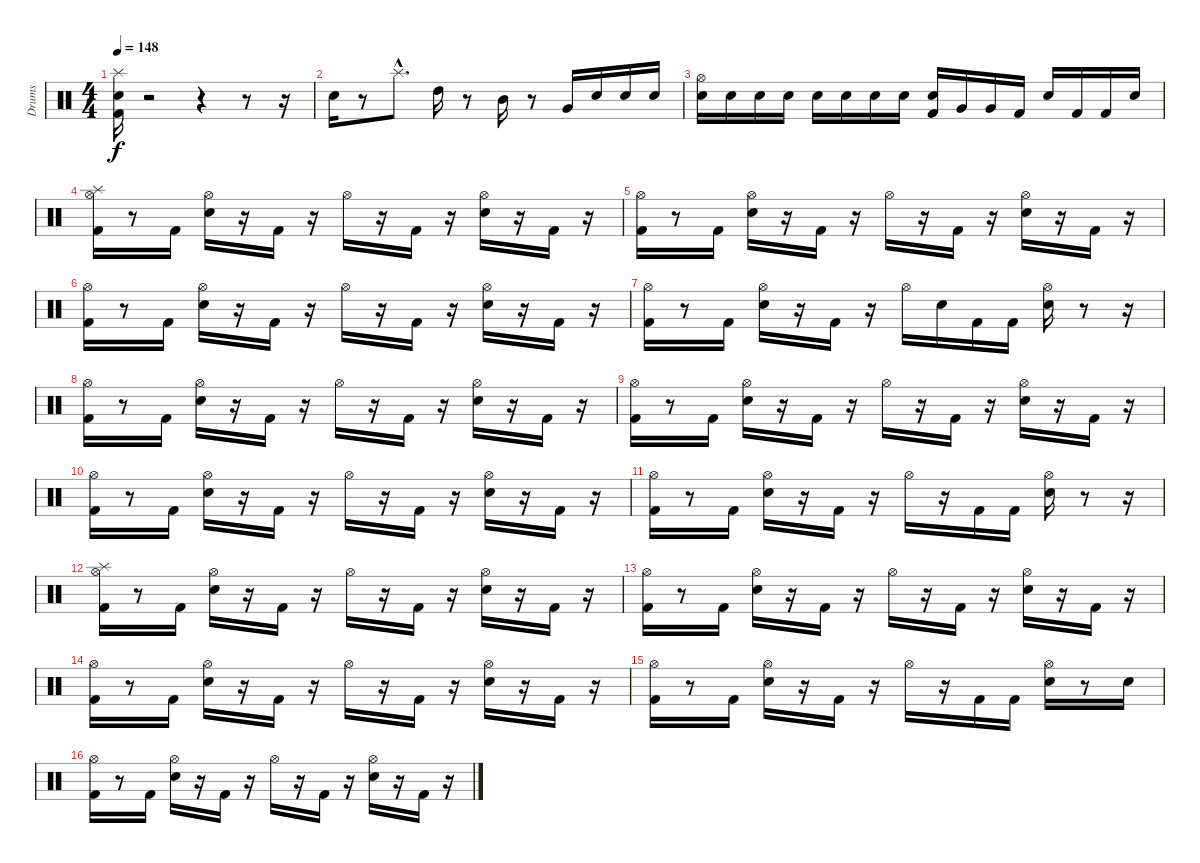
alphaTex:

\track ("Drums" "Drums") {instrument percussion}
\staff {score}
\articulation defaults
\ts (4 4)
\tempo 148
\clef neutral
\ks c
("Splash (hit)" "Kick (hit) 2" "Snare (hit) 2").16{dy f} r.2 r.4 r.8 r.16 |
"Snare (hit) 2".16 r.8 "Splash (hit)"{hac}.8{d} "High Tom (hit)".16 r.8 "Mid Tom (hit)".16 r.8 "Very Low Tom (hit)".16 "Snare (hit) 2".16 "Snare (hit) 2".16 "Snare (hit) 2".16 |
("Hi-Hat (open)" "Snare (hit) 2").16 "Snare (hit) 2".16 "Snare (hit) 2".16 "Snare (hit) 2".16 "Snare (hit) 2".16 "Snare (hit) 2".16 "Snare (hit) 2".16 "Snare (hit) 2".16 ("Kick (hit) 2" "Snare (hit) 2").16 "Very Low Tom (hit)".16 "Very Low Tom (hit)".16 "Kick (hit) 2".16 "Snare (hit) 2".16 "Kick (hit) 2".16 "Kick (hit) 2".16 "Snare (hit) 2".16 |
("Hi-Hat (open)" "Splash (hit)" "Kick (hit) 2").16 r.8 "Kick (hit) 2".16 ("Hi-Hat (open)" "Snare (hit) 2").16 r.16 "Kick (hit) 2".16 r.16 "Hi-Hat (open)".16 r.16 "Kick (hit) 2".16 r.16 ("Hi-Hat (open)" "Snare (hit) 2").16 r.16 "Kick (hit) 2".16 r.16 |
("Hi-Hat (open)" "Kick (hit) 2").16 r.8 "Kick (hit) 2".16 ("Hi-Hat (open)" "Snare (hit) 2").16 r.16 "Kick (hit) 2".16 r.16 "Hi-Hat (open)".16 r.16 "Kick (hit) 2".16 r.16 ("Hi-Hat (open)" "Snare (hit) 2").16 r.16 "Kick (hit) 2".16 r.16 |
("Hi-Hat (open)" "Kick (hit) 2").16 r.8 "Kick (hit) 2".16 ("Hi-Hat (open)" "Snare (hit) 2").16 r.16 "Kick (hit) 2".16 r.16 "Hi-Hat (open)".16 r.16 "Kick (hit) 2".16 r.16 ("Hi-Hat (open)" "Snare (hit) 2").16 r.16 "Kick (hit) 2".16 r.16 |
("Hi-Hat (open)" "Kick (hit) 2").16 r.8 "Kick (hit) 2".16 ("Hi-Hat (open)" "Snare (hit) 2").16 r.16 "Kick (hit) 2".16 r.16 "Hi-Hat (open)".16 "Snare (hit) 2".16 "Kick (hit) 2".16 "Kick (hit) 2".16 ("Hi-Hat (open)" "Snare (hit) 2").16 r.8 r.16 |
("Hi-Hat (open)" "Kick (hit) 2").16 r.8 "Kick (hit) 2".16 ("Hi-Hat (open)" "Snare (hit) 2").16 r.16 "Kick (hit) 2".16 r.16 "Hi-Hat (open)".16 r.16 "Kick (hit) 2".16 r.16 ("Hi-Hat (open)" "Snare (hit) 2").16 r.16 "Kick (hit) 2".16 r.16 |
("Hi-Hat (open)" "Kick (hit) 2").16 r.8 "Kick (hit) 2".16 ("Hi-Hat (open)" "Snare (hit) 2").16 r.16 "Kick (hit) 2".16 r.16 "Hi-Hat (open)".16 r.16 "Kick (hit) 2".16 r.16 ("Hi-Hat (open)" "Snare (hit) 2").16 r.16 "Kick (hit) 2".16 r.16 |
("Hi-Hat (open)" "Kick (hit) 2").16 r.8 "Kick (hit) 2".16 ("Hi-Hat (open)" "Snare (hit) 2").16 r.16 "Kick (hit) 2".16 r.16 "Hi-Hat (open)".16 r.16 "Kick (hit) 2".16 r.16 ("Hi-Hat (open)" "Snare (hit) 2").16 r.16 "Kick (hit) 2".16 r.16 |
("Hi-Hat (open)" "Kick (hit) 2").16 r.8 "Kick (hit) 2".16 ("Hi-Hat (open)" "Snare (hit) 2").16 r.16 "Kick (hit) 2".16 r.16 "Hi-Hat (open)".16 r.16 "Kick (hit) 2".16 "Kick (hit) 2".16 ("Hi-Hat (open)" "Snare (hit) 2").16 r.8 r.16 |
("Hi-Hat (open)" "Splash (hit)" "Kick (hit) 2").16 r.8 "Kick (hit) 2".16 ("Hi-Hat (open)" "Snare (hit) 2").16 r.16 "Kick (hit) 2".16 r.16 "Hi-Hat (open)".16 r.16 "Kick (hit) 2".16 r.16 ("Hi-Hat (open)" "Snare (hit) 2").16 r.16 "Kick (hit) 2".16 r.16 |
("Hi-Hat (open)" "Kick (hit) 2").16 r.8 "Kick (hit) 2".16 ("Hi-Hat (open)" "Snare (hit) 2").16 r.16 "Kick (hit) 2".16 r.16 "Hi-Hat (open)".16 r.16 "Kick (hit) 2".16 r.16 ("Hi-Hat (open)" "Snare (hit) 2").16 r.16 "Kick (hit) 2".16 r.16 |
("Hi-Hat (open)" "Kick (hit) 2").16 r.8 "Kick (hit) 2".16 ("Hi-Hat (open)" "Snare (hit) 2").16 r.16 "Kick (hit) 2".16 r.16 "Hi-Hat (open)".16 r.16 "Kick (hit) 2".16 r.16 ("Hi-Hat (open)" "Snare (hit) 2").16 r.16 "Kick (hit) 2".16 r.16 |
("Hi-Hat (open)" "Kick (hit) 2").16 r.8 "Kick (hit) 2".16 ("Hi-Hat (open)" "Snare (hit) 2").16 r.16 "Kick (hit) 2".16 r.16 "Hi-Hat (open)".16 r.16 "Kick (hit) 2".16 "Kick (hit) 2".16 ("Hi-Hat (open)" "Snare (hit) 2").16 r.8 "Snare (hit) 2".16 |
("Hi-Hat (open)" "Kick (hit) 2").16 r.8 "Kick (hit) 2".16 ("Hi-Hat (open)" "Snare (hit) 2").16 r.16 "Kick (hit) 2".16 r.16 "Hi-Hat (open)".16 r.16 "Kick (hit) 2".16 r.16 ("Hi-Hat (open)" "Snare (hit) 2").16 r.16 "Kick (hit) 2".16 r.16
